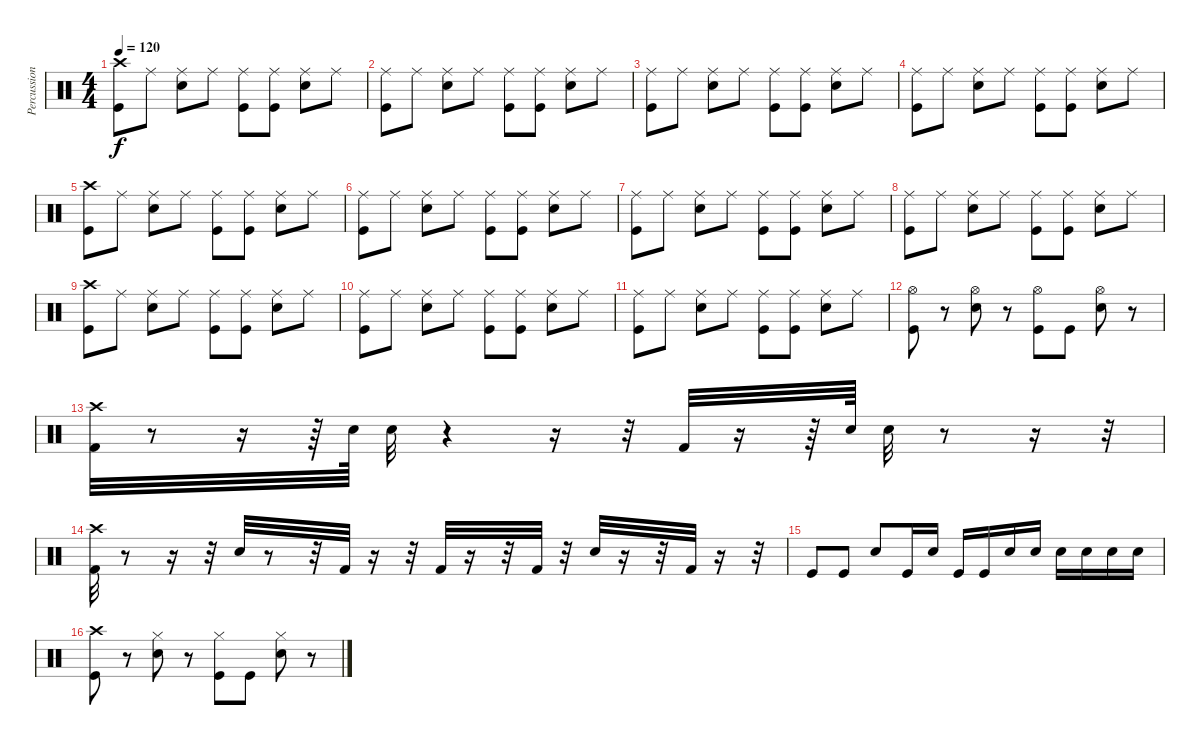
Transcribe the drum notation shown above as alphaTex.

\track ("Percussion" "Percussion") {instrument percussion}
\staff {score}
\articulation defaults
\ts (4 4)
\tempo 120
\clef neutral
\ks c
("Crash high (hit)" "Kick (hit)").8{dy f} "Ride (middle)".8 ("Ride (middle)" "Snare (hit) 2").8 "Ride (middle)".8 ("Ride (middle)" "Kick (hit)").8 ("Ride (middle)" "Kick (hit)").8 ("Ride (middle)" "Snare (hit) 2").8 "Ride (middle)".8 |
("Ride (middle)" "Kick (hit)").8 "Ride (middle)".8 ("Ride (middle)" "Snare (hit) 2").8 "Ride (middle)".8 ("Ride (middle)" "Kick (hit)").8 ("Ride (middle)" "Kick (hit)").8 ("Ride (middle)" "Snare (hit) 2").8 "Ride (middle)".8 |
("Ride (middle)" "Kick (hit)").8 "Ride (middle)".8 ("Ride (middle)" "Snare (hit) 2").8 "Ride (middle)".8 ("Ride (middle)" "Kick (hit)").8 ("Ride (middle)" "Kick (hit)").8 ("Ride (middle)" "Snare (hit) 2").8 "Ride (middle)".8 |
("Ride (middle)" "Kick (hit)").8 "Ride (middle)".8 ("Ride (middle)" "Snare (hit) 2").8 "Ride (middle)".8 ("Ride (middle)" "Kick (hit)").8 ("Ride (middle)" "Kick (hit)").8 ("Ride (middle)" "Snare (hit) 2").8 "Ride (middle)".8 |
("Crash high (hit)" "Kick (hit)").8 "Ride (middle)".8 ("Ride (middle)" "Snare (hit) 2").8 "Ride (middle)".8 ("Ride (middle)" "Kick (hit)").8 ("Ride (middle)" "Kick (hit)").8 ("Ride (middle)" "Snare (hit) 2").8 "Ride (middle)".8 |
("Ride (middle)" "Kick (hit)").8 "Ride (middle)".8 ("Ride (middle)" "Snare (hit) 2").8 "Ride (middle)".8 ("Ride (middle)" "Kick (hit)").8 ("Ride (middle)" "Kick (hit)").8 ("Ride (middle)" "Snare (hit) 2").8 "Ride (middle)".8 |
("Ride (middle)" "Kick (hit)").8 "Ride (middle)".8 ("Ride (middle)" "Snare (hit) 2").8 "Ride (middle)".8 ("Ride (middle)" "Kick (hit)").8 ("Ride (middle)" "Kick (hit)").8 ("Ride (middle)" "Snare (hit) 2").8 "Ride (middle)".8 |
("Ride (middle)" "Kick (hit)").8 "Ride (middle)".8 ("Ride (middle)" "Snare (hit) 2").8 "Ride (middle)".8 ("Ride (middle)" "Kick (hit)").8 ("Ride (middle)" "Kick (hit)").8 ("Ride (middle)" "Snare (hit) 2").8 "Ride (middle)".8 |
("Crash high (hit)" "Kick (hit)").8 "Ride (middle)".8 ("Ride (middle)" "Snare (hit) 2").8 "Ride (middle)".8 ("Ride (middle)" "Kick (hit)").8 ("Ride (middle)" "Kick (hit)").8 ("Ride (middle)" "Snare (hit) 2").8 "Ride (middle)".8 |
("Ride (middle)" "Kick (hit)").8 "Ride (middle)".8 ("Ride (middle)" "Snare (hit) 2").8 "Ride (middle)".8 ("Ride (middle)" "Kick (hit)").8 ("Ride (middle)" "Kick (hit)").8 ("Ride (middle)" "Snare (hit) 2").8 "Ride (middle)".8 |
("Ride (middle)" "Kick (hit)").8 "Ride (middle)".8 ("Ride (middle)" "Snare (hit) 2").8 "Ride (middle)".8 ("Ride (middle)" "Kick (hit)").8 ("Ride (middle)" "Kick (hit)").8 ("Ride (middle)" "Snare (hit) 2").8 "Ride (middle)".8 |
("Hi-Hat (open)" "Kick (hit)").8 r.8 ("Hi-Hat (open)" "Snare (hit) 2").8 r.8 ("Hi-Hat (open)" "Kick (hit)").8 "Kick (hit)".8 ("Hi-Hat (open)" "Snare (hit) 2").8 r.8 |
("Kick (hit) 2" "Crash high (hit)").32 r.8 r.16 r.64 "Snare (hit) 2".64 "Snare (hit) 2".32 r.4 r.16 r.32 "Kick (hit) 2".32 r.16 r.64 "Snare (hit) 2".64 "Snare (hit) 2".32 r.8 r.16 r.32 |
("Kick (hit) 2" "Crash high (hit)").32 r.8 r.16 r.32 "Snare (hit) 2".32 r.8 r.32 "Kick (hit) 2".32 r.16 r.32 "Kick (hit) 2".32 r.16 r.32 "Kick (hit) 2".32 r.32 "Snare (hit) 2".32 r.16 r.32 "Kick (hit) 2".32 r.16 r.32 |
"Kick (hit)".8 "Kick (hit)".8 "Snare (hit) 2".8 "Kick (hit)".16 "Snare (hit) 2".16 "Kick (hit)".16 "Kick (hit)".16 "Snare (hit) 2".16 "Snare (hit) 2".16 "Snare (hit) 2".16 "Snare (hit) 2".16 "Snare (hit) 2".16 "Snare (hit) 2".16 |
("Crash high (hit)" "Kick (hit)").8 r.8 ("Hi-Hat (closed)" "Snare (hit) 2").8 r.8 ("Hi-Hat (closed)" "Kick (hit)").8 "Kick (hit)".8 ("Hi-Hat (closed)" "Snare (hit) 2").8 r.8
